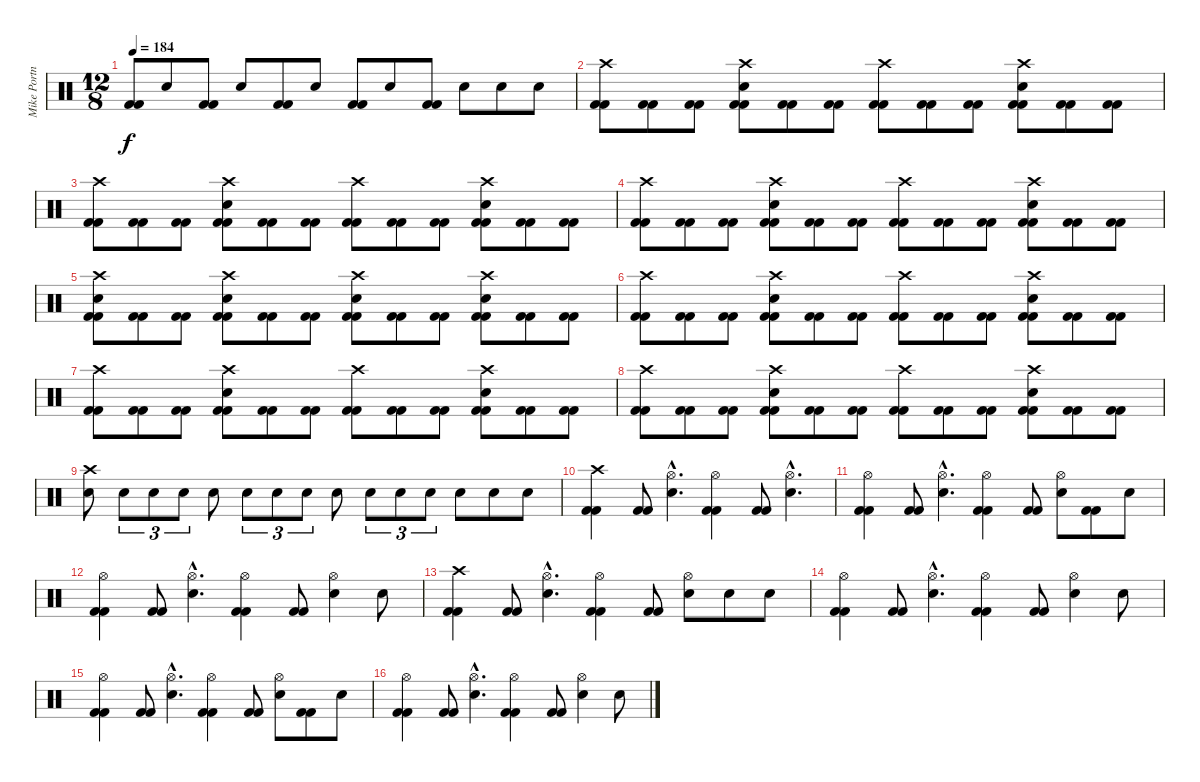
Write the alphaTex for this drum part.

\track ("Mike Portnoy - Drum" "Mike Portn") {instrument percussion}
\staff {score}
\articulation defaults
\ts (12 8)
\tempo 184
\clef neutral
\ks c
("Kick (hit) 2" "Kick (hit) 2").8{dy f} "Snare (hit) 2".8 ("Kick (hit) 2" "Kick (hit) 2").8 "Snare (hit) 2".8 ("Kick (hit) 2" "Kick (hit) 2").8 "Snare (hit) 2".8 ("Kick (hit) 2" "Kick (hit) 2").8 "Snare (hit) 2".8 ("Kick (hit) 2" "Kick (hit) 2").8 "Snare (hit) 2".8 "Snare (hit) 2".8 "Snare (hit) 2".8 |
("Crash high (hit)" "Kick (hit) 2" "Kick (hit) 2").8 ("Kick (hit) 2" "Kick (hit) 2").8 ("Kick (hit) 2" "Kick (hit) 2").8 ("Crash high (hit)" "Snare (hit) 2" "Kick (hit) 2" "Kick (hit) 2").8 ("Kick (hit) 2" "Kick (hit) 2").8 ("Kick (hit) 2" "Kick (hit) 2").8 ("Crash high (hit)" "Kick (hit) 2" "Kick (hit) 2").8 ("Kick (hit) 2" "Kick (hit) 2").8 ("Kick (hit) 2" "Kick (hit) 2").8 ("Crash high (hit)" "Snare (hit) 2" "Kick (hit) 2" "Kick (hit) 2").8 ("Kick (hit) 2" "Kick (hit) 2").8 ("Kick (hit) 2" "Kick (hit) 2").8 |
("Crash high (hit)" "Kick (hit) 2" "Kick (hit) 2").8 ("Kick (hit) 2" "Kick (hit) 2").8 ("Kick (hit) 2" "Kick (hit) 2").8 ("Crash high (hit)" "Snare (hit) 2" "Kick (hit) 2" "Kick (hit) 2").8 ("Kick (hit) 2" "Kick (hit) 2").8 ("Kick (hit) 2" "Kick (hit) 2").8 ("Crash high (hit)" "Kick (hit) 2" "Kick (hit) 2").8 ("Kick (hit) 2" "Kick (hit) 2").8 ("Kick (hit) 2" "Kick (hit) 2").8 ("Crash high (hit)" "Snare (hit) 2" "Kick (hit) 2" "Kick (hit) 2").8 ("Kick (hit) 2" "Kick (hit) 2").8 ("Kick (hit) 2" "Kick (hit) 2").8 |
("Crash high (hit)" "Kick (hit) 2" "Kick (hit) 2").8 ("Kick (hit) 2" "Kick (hit) 2").8 ("Kick (hit) 2" "Kick (hit) 2").8 ("Crash high (hit)" "Snare (hit) 2" "Kick (hit) 2" "Kick (hit) 2").8 ("Kick (hit) 2" "Kick (hit) 2").8 ("Kick (hit) 2" "Kick (hit) 2").8 ("Crash high (hit)" "Kick (hit) 2" "Kick (hit) 2").8 ("Kick (hit) 2" "Kick (hit) 2").8 ("Kick (hit) 2" "Kick (hit) 2").8 ("Crash high (hit)" "Snare (hit) 2" "Kick (hit) 2" "Kick (hit) 2").8 ("Kick (hit) 2" "Kick (hit) 2").8 ("Kick (hit) 2" "Kick (hit) 2").8 |
("Crash high (hit)" "Snare (hit) 2" "Kick (hit) 2" "Kick (hit) 2").8 ("Kick (hit) 2" "Kick (hit) 2").8 ("Kick (hit) 2" "Kick (hit) 2").8 ("Crash high (hit)" "Snare (hit) 2" "Kick (hit) 2" "Kick (hit) 2").8 ("Kick (hit) 2" "Kick (hit) 2").8 ("Kick (hit) 2" "Kick (hit) 2").8 ("Crash high (hit)" "Snare (hit) 2" "Kick (hit) 2" "Kick (hit) 2").8 ("Kick (hit) 2" "Kick (hit) 2").8 ("Kick (hit) 2" "Kick (hit) 2").8 ("Crash high (hit)" "Snare (hit) 2" "Kick (hit) 2" "Kick (hit) 2").8 ("Kick (hit) 2" "Kick (hit) 2").8 ("Kick (hit) 2" "Kick (hit) 2").8 |
("Crash high (hit)" "Kick (hit) 2" "Kick (hit) 2").8 ("Kick (hit) 2" "Kick (hit) 2").8 ("Kick (hit) 2" "Kick (hit) 2").8 ("Crash high (hit)" "Snare (hit) 2" "Kick (hit) 2" "Kick (hit) 2").8 ("Kick (hit) 2" "Kick (hit) 2").8 ("Kick (hit) 2" "Kick (hit) 2").8 ("Crash high (hit)" "Kick (hit) 2" "Kick (hit) 2").8 ("Kick (hit) 2" "Kick (hit) 2").8 ("Kick (hit) 2" "Kick (hit) 2").8 ("Crash high (hit)" "Snare (hit) 2" "Kick (hit) 2" "Kick (hit) 2").8 ("Kick (hit) 2" "Kick (hit) 2").8 ("Kick (hit) 2" "Kick (hit) 2").8 |
("Crash high (hit)" "Kick (hit) 2" "Kick (hit) 2").8 ("Kick (hit) 2" "Kick (hit) 2").8 ("Kick (hit) 2" "Kick (hit) 2").8 ("Crash high (hit)" "Snare (hit) 2" "Kick (hit) 2" "Kick (hit) 2").8 ("Kick (hit) 2" "Kick (hit) 2").8 ("Kick (hit) 2" "Kick (hit) 2").8 ("Crash high (hit)" "Kick (hit) 2" "Kick (hit) 2").8 ("Kick (hit) 2" "Kick (hit) 2").8 ("Kick (hit) 2" "Kick (hit) 2").8 ("Crash high (hit)" "Snare (hit) 2" "Kick (hit) 2" "Kick (hit) 2").8 ("Kick (hit) 2" "Kick (hit) 2").8 ("Kick (hit) 2" "Kick (hit) 2").8 |
("Crash high (hit)" "Kick (hit) 2" "Kick (hit) 2").8 ("Kick (hit) 2" "Kick (hit) 2").8 ("Kick (hit) 2" "Kick (hit) 2").8 ("Crash high (hit)" "Snare (hit) 2" "Kick (hit) 2" "Kick (hit) 2").8 ("Kick (hit) 2" "Kick (hit) 2").8 ("Kick (hit) 2" "Kick (hit) 2").8 ("Crash high (hit)" "Kick (hit) 2" "Kick (hit) 2").8 ("Kick (hit) 2" "Kick (hit) 2").8 ("Kick (hit) 2" "Kick (hit) 2").8 ("Crash high (hit)" "Snare (hit) 2" "Kick (hit) 2" "Kick (hit) 2").8 ("Kick (hit) 2" "Kick (hit) 2").8 ("Kick (hit) 2" "Kick (hit) 2").8 |
("Crash high (hit)" "Snare (hit) 2").8 "Snare (hit) 2".8{tu (3 2)} "Snare (hit) 2".8{tu (3 2)} "Snare (hit) 2".8{tu (3 2)} "Snare (hit) 2".8 "Snare (hit) 2".8{tu (3 2)} "Snare (hit) 2".8{tu (3 2)} "Snare (hit) 2".8{tu (3 2)} "Snare (hit) 2".8 "Snare (hit) 2".8{tu (3 2)} "Snare (hit) 2".8{tu (3 2)} "Snare (hit) 2".8{tu (3 2)} "Snare (hit) 2".8 "Snare (hit) 2".8 "Snare (hit) 2".8 |
("Crash high (hit)" "Kick (hit) 2" "Kick (hit) 2").4 ("Kick (hit) 2" "Kick (hit) 2").8 ("Hi-Hat (open)"{hac} "Snare (hit) 2"{hac}).4{d} ("Hi-Hat (open)" "Kick (hit) 2" "Kick (hit) 2").4 ("Kick (hit) 2" "Kick (hit) 2").8 ("Hi-Hat (open)"{hac} "Snare (hit) 2"{hac}).4{d} |
("Hi-Hat (open)" "Kick (hit) 2" "Kick (hit) 2").4 ("Kick (hit) 2" "Kick (hit) 2").8 ("Hi-Hat (open)"{hac} "Snare (hit) 2"{hac}).4{d} ("Hi-Hat (open)" "Kick (hit) 2" "Kick (hit) 2").4 ("Kick (hit) 2" "Kick (hit) 2").8 ("Hi-Hat (open)" "Snare (hit) 2").8 ("Kick (hit) 2" "Kick (hit) 2").8 "Snare (hit) 2".8 |
("Hi-Hat (open)" "Kick (hit) 2" "Kick (hit) 2").4 ("Kick (hit) 2" "Kick (hit) 2").8 ("Hi-Hat (open)"{hac} "Snare (hit) 2"{hac}).4{d} ("Hi-Hat (open)" "Kick (hit) 2" "Kick (hit) 2").4 ("Kick (hit) 2" "Kick (hit) 2").8 ("Hi-Hat (open)" "Snare (hit) 2").4 "Snare (hit) 2".8 |
("Crash high (hit)" "Kick (hit) 2" "Kick (hit) 2").4 ("Kick (hit) 2" "Kick (hit) 2").8 ("Hi-Hat (open)"{hac} "Snare (hit) 2"{hac}).4{d} ("Hi-Hat (open)" "Kick (hit) 2" "Kick (hit) 2").4 ("Kick (hit) 2" "Kick (hit) 2").8 ("Hi-Hat (open)" "Snare (hit) 2").8 "Snare (hit) 2".8 "Snare (hit) 2".8 |
("Hi-Hat (open)" "Kick (hit) 2" "Kick (hit) 2").4 ("Kick (hit) 2" "Kick (hit) 2").8 ("Hi-Hat (open)"{hac} "Snare (hit) 2"{hac}).4{d} ("Hi-Hat (open)" "Kick (hit) 2" "Kick (hit) 2").4 ("Kick (hit) 2" "Kick (hit) 2").8 ("Hi-Hat (open)" "Snare (hit) 2").4 "Snare (hit) 2".8 |
("Hi-Hat (open)" "Kick (hit) 2" "Kick (hit) 2").4 ("Kick (hit) 2" "Kick (hit) 2").8 ("Hi-Hat (open)"{hac} "Snare (hit) 2"{hac}).4{d} ("Hi-Hat (open)" "Kick (hit) 2" "Kick (hit) 2").4 ("Kick (hit) 2" "Kick (hit) 2").8 ("Hi-Hat (open)" "Snare (hit) 2").8 ("Kick (hit) 2" "Kick (hit) 2").8 "Snare (hit) 2".8 |
("Hi-Hat (open)" "Kick (hit) 2" "Kick (hit) 2").4 ("Kick (hit) 2" "Kick (hit) 2").8 ("Hi-Hat (open)"{hac} "Snare (hit) 2"{hac}).4{d} ("Hi-Hat (open)" "Kick (hit) 2" "Kick (hit) 2").4 ("Kick (hit) 2" "Kick (hit) 2").8 ("Hi-Hat (open)" "Snare (hit) 2").4 "Snare (hit) 2".8
